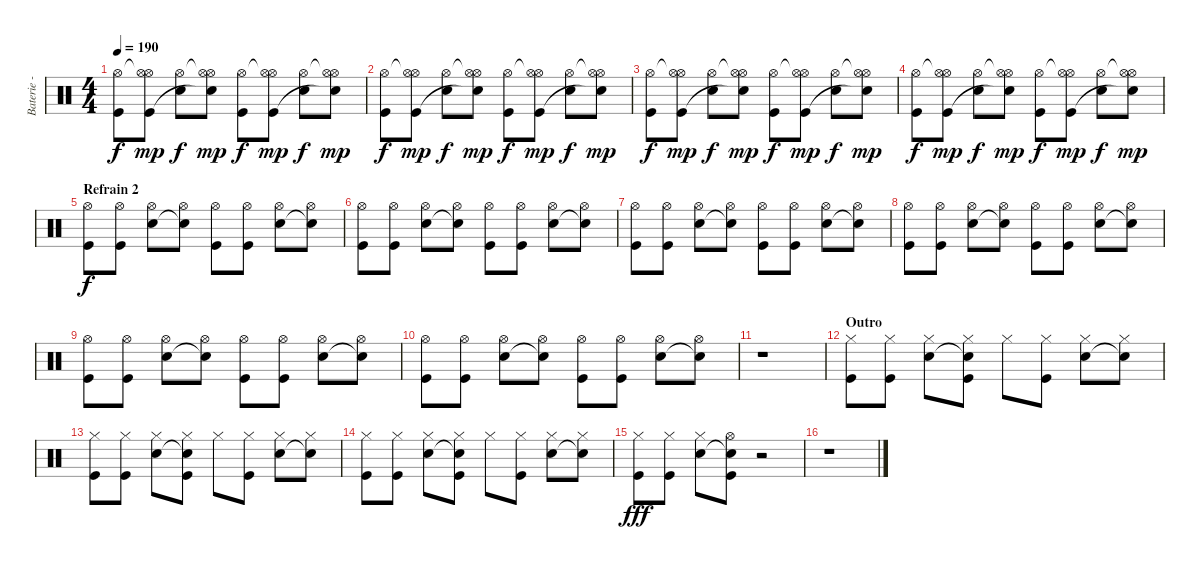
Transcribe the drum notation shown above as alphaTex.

\track ("Baterie - Guillaume" "Baterie - ") {instrument percussion}
\staff {score}
\articulation defaults
\ts (4 4)
\tempo 190
\clef neutral
\ks c
("Hi-Hat (open)" "Kick (hit)").8{dy f} ("Hi-Hat (open)"{t} "Hi-Hat (open)" "Kick (hit)").8{dy mp} ("Hi-Hat (open)" "Electric Snare (hit)").8{dy f} ("Hi-Hat (open)"{t} "Hi-Hat (open)" "Snare (hit)"{t}).8{dy mp} ("Hi-Hat (open)" "Kick (hit)").8{dy f} ("Hi-Hat (open)"{t} "Hi-Hat (open)" "Kick (hit)").8{dy mp} ("Hi-Hat (open)" "Electric Snare (hit)").8{dy f} ("Hi-Hat (open)"{t} "Hi-Hat (open)" "Snare (hit)"{t}).8{dy mp} |
("Hi-Hat (open)" "Kick (hit)").8{dy f} ("Hi-Hat (open)"{t} "Hi-Hat (open)" "Kick (hit)").8{dy mp} ("Hi-Hat (open)" "Electric Snare (hit)").8{dy f} ("Hi-Hat (open)"{t} "Hi-Hat (open)" "Snare (hit)"{t}).8{dy mp} ("Hi-Hat (open)" "Kick (hit)").8{dy f} ("Hi-Hat (open)"{t} "Hi-Hat (open)" "Kick (hit)").8{dy mp} ("Hi-Hat (open)" "Electric Snare (hit)").8{dy f} ("Hi-Hat (open)"{t} "Hi-Hat (open)" "Snare (hit)"{t}).8{dy mp} |
("Hi-Hat (open)" "Kick (hit)").8{dy f} ("Hi-Hat (open)"{t} "Hi-Hat (open)" "Kick (hit)").8{dy mp} ("Hi-Hat (open)" "Electric Snare (hit)").8{dy f} ("Hi-Hat (open)"{t} "Hi-Hat (open)" "Snare (hit)"{t}).8{dy mp} ("Hi-Hat (open)" "Kick (hit)").8{dy f} ("Hi-Hat (open)"{t} "Hi-Hat (open)" "Kick (hit)").8{dy mp} ("Hi-Hat (open)" "Electric Snare (hit)").8{dy f} ("Hi-Hat (open)"{t} "Hi-Hat (open)" "Snare (hit)"{t}).8{dy mp} |
("Hi-Hat (open)" "Kick (hit)").8{dy f} ("Hi-Hat (open)"{t} "Hi-Hat (open)" "Kick (hit)").8{dy mp} ("Hi-Hat (open)" "Electric Snare (hit)").8{dy f} ("Hi-Hat (open)"{t} "Hi-Hat (open)" "Snare (hit)"{t}).8{dy mp} ("Hi-Hat (open)" "Kick (hit)").8{dy f} ("Hi-Hat (open)"{t} "Hi-Hat (open)" "Kick (hit)").8{dy mp} ("Hi-Hat (open)" "Electric Snare (hit)").8{dy f} ("Hi-Hat (open)"{t} "Hi-Hat (open)" "Snare (hit)"{t}).8{dy mp} |
\section ("" "Refrain 2")
("Hi-Hat (open)" "Kick (hit)").8{dy f} ("Hi-Hat (open)" "Kick (hit)").8 ("Hi-Hat (open)" "Electric Snare (hit)").8 ("Hi-Hat (open)" "Snare (hit)"{t}).8 ("Hi-Hat (open)" "Kick (hit)").8 ("Hi-Hat (open)" "Kick (hit)").8 ("Hi-Hat (open)" "Electric Snare (hit)").8 ("Hi-Hat (open)" "Snare (hit)"{t}).8 |
("Hi-Hat (open)" "Kick (hit)").8 ("Hi-Hat (open)" "Kick (hit)").8 ("Hi-Hat (open)" "Electric Snare (hit)").8 ("Hi-Hat (open)" "Snare (hit)"{t}).8 ("Hi-Hat (open)" "Kick (hit)").8 ("Hi-Hat (open)" "Kick (hit)").8 ("Hi-Hat (open)" "Electric Snare (hit)").8 ("Hi-Hat (open)" "Snare (hit)"{t}).8 |
("Hi-Hat (open)" "Kick (hit)").8 ("Hi-Hat (open)" "Kick (hit)").8 ("Hi-Hat (open)" "Electric Snare (hit)").8 ("Hi-Hat (open)" "Snare (hit)"{t}).8 ("Hi-Hat (open)" "Kick (hit)").8 ("Hi-Hat (open)" "Kick (hit)").8 ("Hi-Hat (open)" "Electric Snare (hit)").8 ("Hi-Hat (open)" "Snare (hit)"{t}).8 |
("Hi-Hat (open)" "Kick (hit)").8 ("Hi-Hat (open)" "Kick (hit)").8 ("Hi-Hat (open)" "Electric Snare (hit)").8 ("Hi-Hat (open)" "Snare (hit)"{t}).8 ("Hi-Hat (open)" "Kick (hit)").8 ("Hi-Hat (open)" "Kick (hit)").8 ("Hi-Hat (open)" "Electric Snare (hit)").8 ("Hi-Hat (open)" "Snare (hit)"{t}).8 |
("Hi-Hat (open)" "Kick (hit)").8 ("Hi-Hat (open)" "Kick (hit)").8 ("Hi-Hat (open)" "Electric Snare (hit)").8 ("Hi-Hat (open)" "Snare (hit)"{t}).8 ("Hi-Hat (open)" "Kick (hit)").8 ("Hi-Hat (open)" "Kick (hit)").8 ("Hi-Hat (open)" "Electric Snare (hit)").8 ("Hi-Hat (open)" "Snare (hit)"{t}).8 |
("Hi-Hat (open)" "Kick (hit)").8 ("Hi-Hat (open)" "Kick (hit)").8 ("Hi-Hat (open)" "Electric Snare (hit)").8 ("Hi-Hat (open)" "Snare (hit)"{t}).8 ("Hi-Hat (open)" "Kick (hit)").8 ("Hi-Hat (open)" "Kick (hit)").8 ("Hi-Hat (open)" "Electric Snare (hit)").8 ("Hi-Hat (open)" "Snare (hit)"{t}).8 |
r.1 |
\section ("" "Outro")
("Hi-Hat (closed)" "Kick (hit)").8 ("Hi-Hat (closed)" "Kick (hit)").8 ("Hi-Hat (closed)" "Electric Snare (hit)").8 ("Hi-Hat (closed)" "Snare (hit)"{t} "Kick (hit)").8 "Hi-Hat (closed)".8 ("Hi-Hat (closed)" "Kick (hit)").8 ("Hi-Hat (closed)" "Electric Snare (hit)").8 ("Hi-Hat (closed)" "Snare (hit)"{t}).8 |
("Hi-Hat (closed)" "Kick (hit)").8 ("Hi-Hat (closed)" "Kick (hit)").8 ("Hi-Hat (closed)" "Electric Snare (hit)").8 ("Hi-Hat (closed)" "Snare (hit)"{t} "Kick (hit)").8 "Hi-Hat (closed)".8 ("Hi-Hat (closed)" "Kick (hit)").8 ("Hi-Hat (closed)" "Electric Snare (hit)").8 ("Hi-Hat (closed)" "Snare (hit)"{t}).8 |
("Hi-Hat (closed)" "Kick (hit)").8 ("Hi-Hat (closed)" "Kick (hit)").8 ("Hi-Hat (closed)" "Electric Snare (hit)").8 ("Hi-Hat (closed)" "Snare (hit)"{t} "Kick (hit)").8 "Hi-Hat (closed)".8 ("Hi-Hat (closed)" "Kick (hit)").8 ("Hi-Hat (closed)" "Electric Snare (hit)").8 ("Hi-Hat (closed)" "Snare (hit)"{t}).8 |
("Hi-Hat (closed)" "Kick (hit)").8{dy fff} ("Hi-Hat (closed)" "Kick (hit)").8 ("Hi-Hat (closed)" "Electric Snare (hit)").8 ("Hi-Hat (open)" "Snare (hit)"{t} "Kick (hit)").8 r.2 |
r.1
